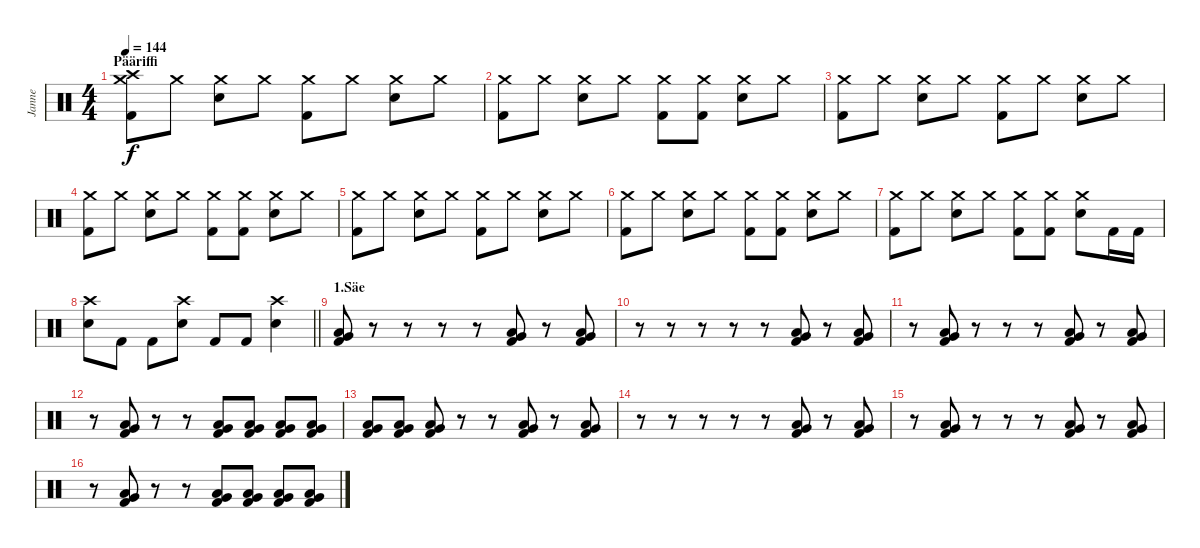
\track ("Janne" "Janne") {instrument percussion}
\staff {score}
\articulation defaults
\ts (4 4)
\section ("" "Pääriffi")
\tempo 144
\clef neutral
\ks c
("Crash high (hit)" "Crash medium (hit)" "Kick (hit) 2").8{dy f} "Crash medium (hit)".8 ("Crash medium (hit)" "Electric Snare (hit)").8 "Crash medium (hit)".8 ("Crash medium (hit)" "Kick (hit) 2").8 "Crash medium (hit)".8 ("Crash medium (hit)" "Electric Snare (hit)").8 "Crash medium (hit)".8 |
("Crash medium (hit)" "Kick (hit) 2").8 "Crash medium (hit)".8 ("Crash medium (hit)" "Electric Snare (hit)").8 "Crash medium (hit)".8 ("Crash medium (hit)" "Kick (hit) 2").8 ("Crash medium (hit)" "Kick (hit) 2").8 ("Crash medium (hit)" "Electric Snare (hit)").8 "Crash medium (hit)".8 |
("Crash medium (hit)" "Kick (hit) 2").8 "Crash medium (hit)".8 ("Crash medium (hit)" "Electric Snare (hit)").8 "Crash medium (hit)".8 ("Crash medium (hit)" "Kick (hit) 2").8 "Crash medium (hit)".8 ("Crash medium (hit)" "Electric Snare (hit)").8 "Crash medium (hit)".8 |
("Crash medium (hit)" "Kick (hit) 2").8 "Crash medium (hit)".8 ("Crash medium (hit)" "Electric Snare (hit)").8 "Crash medium (hit)".8 ("Crash medium (hit)" "Kick (hit) 2").8 ("Crash medium (hit)" "Kick (hit) 2").8 ("Crash medium (hit)" "Electric Snare (hit)").8 "Crash medium (hit)".8 |
("Crash medium (hit)" "Kick (hit) 2").8 "Crash medium (hit)".8 ("Crash medium (hit)" "Electric Snare (hit)").8 "Crash medium (hit)".8 ("Crash medium (hit)" "Kick (hit) 2").8 "Crash medium (hit)".8 ("Crash medium (hit)" "Electric Snare (hit)").8 "Crash medium (hit)".8 |
("Crash medium (hit)" "Kick (hit) 2").8 "Crash medium (hit)".8 ("Crash medium (hit)" "Electric Snare (hit)").8 "Crash medium (hit)".8 ("Crash medium (hit)" "Kick (hit) 2").8 ("Crash medium (hit)" "Kick (hit) 2").8 ("Crash medium (hit)" "Electric Snare (hit)").8 "Crash medium (hit)".8 |
("Crash medium (hit)" "Kick (hit) 2").8 "Crash medium (hit)".8 ("Crash medium (hit)" "Electric Snare (hit)").8 "Crash medium (hit)".8 ("Crash medium (hit)" "Kick (hit) 2").8 ("Crash medium (hit)" "Kick (hit) 2").8 ("Crash medium (hit)" "Electric Snare (hit)").8 "Kick (hit) 2".16 "Kick (hit) 2".16 |
\barLineRight lightlight
("Crash high (hit)" "Electric Snare (hit)").8 "Kick (hit) 2".8 "Kick (hit) 2".8 ("Crash high (hit)" "Electric Snare (hit)").8 "Kick (hit) 2".8 "Kick (hit) 2".8 ("Crash high (hit)" "Electric Snare (hit)").4 |
\section ("" "1.Säe")
("Low Floor Tom (hit)" "Very Low Tom (hit)" "Kick (hit) 2").8 r.8 r.8 r.8 r.8 ("Low Floor Tom (hit)" "Very Low Tom (hit)" "Kick (hit) 2").8 r.8 ("Low Floor Tom (hit)" "Very Low Tom (hit)" "Kick (hit) 2").8 |
r.8 r.8 r.8 r.8 r.8 ("Low Floor Tom (hit)" "Very Low Tom (hit)" "Kick (hit) 2").8 r.8 ("Low Floor Tom (hit)" "Very Low Tom (hit)" "Kick (hit) 2").8 |
r.8 ("Low Floor Tom (hit)" "Very Low Tom (hit)" "Kick (hit) 2").8 r.8 r.8 r.8 ("Low Floor Tom (hit)" "Very Low Tom (hit)" "Kick (hit) 2").8 r.8 ("Low Floor Tom (hit)" "Very Low Tom (hit)" "Kick (hit) 2").8 |
r.8 ("Low Floor Tom (hit)" "Very Low Tom (hit)" "Kick (hit) 2").8 r.8 r.8 ("Low Floor Tom (hit)" "Very Low Tom (hit)" "Kick (hit) 2").8 ("Low Floor Tom (hit)" "Very Low Tom (hit)" "Kick (hit) 2").8 ("Low Floor Tom (hit)" "Very Low Tom (hit)" "Kick (hit) 2").8 ("Low Floor Tom (hit)" "Very Low Tom (hit)" "Kick (hit) 2").8 |
("Low Floor Tom (hit)" "Very Low Tom (hit)" "Kick (hit) 2").8 ("Low Floor Tom (hit)" "Very Low Tom (hit)" "Kick (hit) 2").8 ("Low Floor Tom (hit)" "Very Low Tom (hit)" "Kick (hit) 2").8 r.8 r.8 ("Low Floor Tom (hit)" "Very Low Tom (hit)" "Kick (hit) 2").8 r.8 ("Low Floor Tom (hit)" "Very Low Tom (hit)" "Kick (hit) 2").8 |
r.8 r.8 r.8 r.8 r.8 ("Low Floor Tom (hit)" "Very Low Tom (hit)" "Kick (hit) 2").8 r.8 ("Low Floor Tom (hit)" "Very Low Tom (hit)" "Kick (hit) 2").8 |
r.8 ("Low Floor Tom (hit)" "Very Low Tom (hit)" "Kick (hit) 2").8 r.8 r.8 r.8 ("Low Floor Tom (hit)" "Very Low Tom (hit)" "Kick (hit) 2").8 r.8 ("Low Floor Tom (hit)" "Very Low Tom (hit)" "Kick (hit) 2").8 |
r.8 ("Low Floor Tom (hit)" "Very Low Tom (hit)" "Kick (hit) 2").8 r.8 r.8 ("Low Floor Tom (hit)" "Very Low Tom (hit)" "Kick (hit) 2").8 ("Low Floor Tom (hit)" "Very Low Tom (hit)" "Kick (hit) 2").8 ("Low Floor Tom (hit)" "Very Low Tom (hit)" "Kick (hit) 2").8 ("Low Floor Tom (hit)" "Very Low Tom (hit)" "Kick (hit) 2").8
